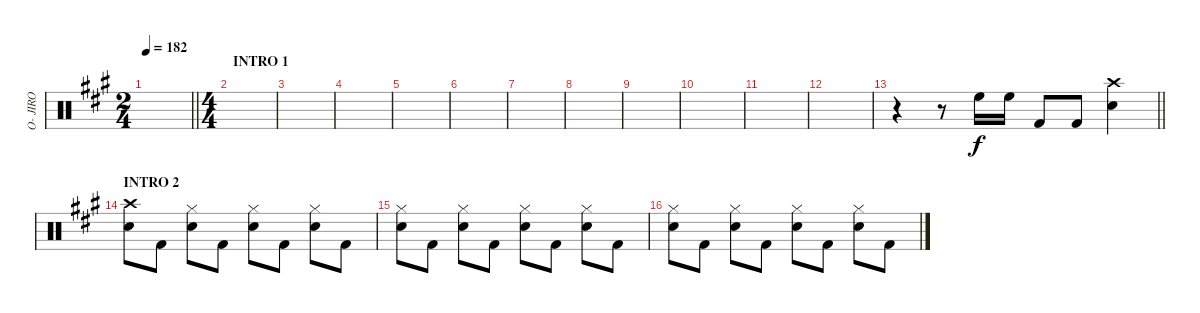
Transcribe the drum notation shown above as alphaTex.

\track ("O- JIRO" "O- JIRO") {instrument percussion}
\staff {score}
\articulation defaults
\ts (2 4)
\tempo 182
\clef neutral
\barLineRight lightlight
\ks a
|
\ts (4 4)
\section ("" "INTRO 1")
|
|
|
|
|
|
|
|
|
|
|
\barLineRight lightlight
r.4 r.8 "High Floor Tom (hit)".16 "High Floor Tom (hit)".16 "Kick (hit) 2".8 "Kick (hit) 2".8 ("Crash high (hit)" "Snare (hit) 2").4 |
\section ("" "INTRO 2")
("Crash high (hit)" "Snare (hit) 2").8 "Kick (hit) 2".8 ("Hi-Hat (closed)" "Snare (hit) 2").8 "Kick (hit) 2".8 ("Hi-Hat (closed)" "Snare (hit) 2").8 "Kick (hit) 2".8 ("Hi-Hat (closed)" "Snare (hit) 2").8 "Kick (hit) 2".8 |
("Hi-Hat (closed)" "Snare (hit) 2").8 "Kick (hit) 2".8 ("Hi-Hat (closed)" "Snare (hit) 2").8 "Kick (hit) 2".8 ("Hi-Hat (closed)" "Snare (hit) 2").8 "Kick (hit) 2".8 ("Hi-Hat (closed)" "Snare (hit) 2").8 "Kick (hit) 2".8 |
("Hi-Hat (closed)" "Snare (hit) 2").8 "Kick (hit) 2".8 ("Hi-Hat (closed)" "Snare (hit) 2").8 "Kick (hit) 2".8 ("Hi-Hat (closed)" "Snare (hit) 2").8 "Kick (hit) 2".8 ("Hi-Hat (closed)" "Snare (hit) 2").8 "Kick (hit) 2".8
